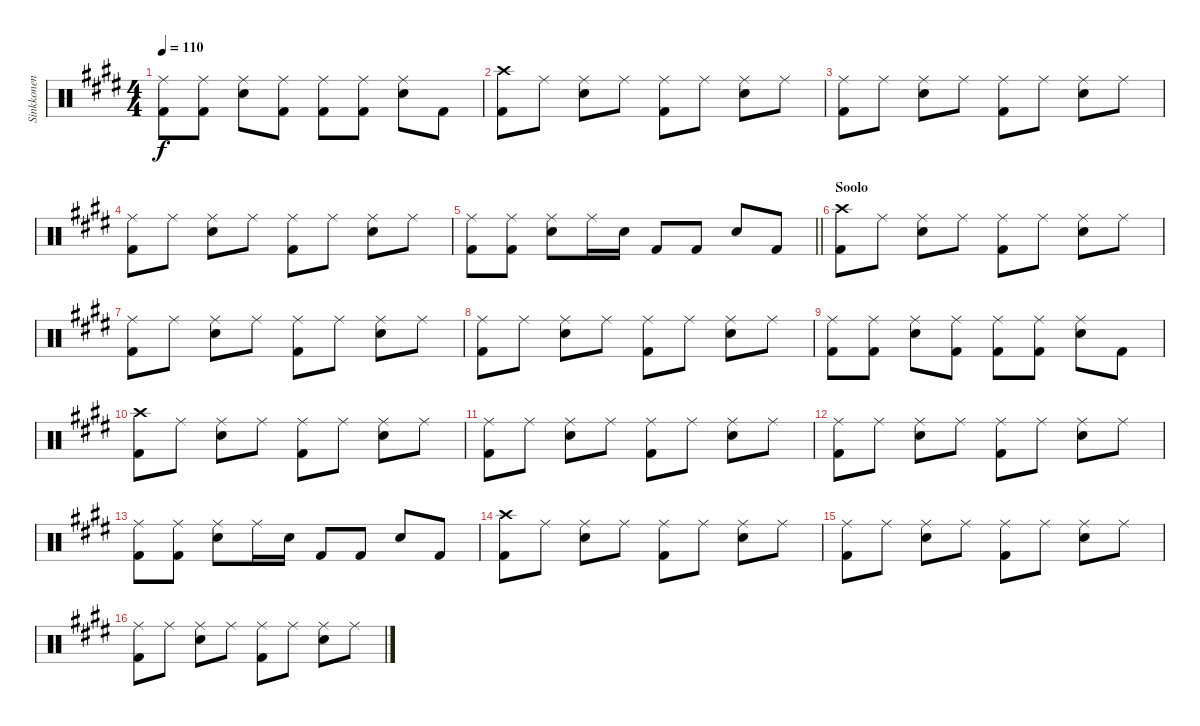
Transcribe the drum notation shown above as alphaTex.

\track ("Sinkkonen" "Sinkkonen") {instrument percussion}
\staff {score}
\articulation defaults
\ts (4 4)
\tempo 110
\clef neutral
\ks c#minor
("Ride (middle)" "Kick (hit) 2").8{dy f} ("Ride (middle)" "Kick (hit) 2").8 ("Ride (middle)" "Snare (hit) 2").8 ("Ride (middle)" "Kick (hit) 2").8 ("Ride (middle)" "Kick (hit) 2").8 ("Ride (middle)" "Kick (hit) 2").8 ("Ride (middle)" "Snare (hit) 2").8 "Kick (hit) 2".8 |
("Crash high (hit)" "Kick (hit) 2").8 "Ride (middle)".8 ("Ride (middle)" "Snare (hit) 2").8 "Ride (middle)".8 ("Ride (middle)" "Kick (hit) 2").8 "Ride (middle)".8 ("Ride (middle)" "Snare (hit) 2").8 "Ride (middle)".8 |
("Ride (middle)" "Kick (hit) 2").8 "Ride (middle)".8 ("Ride (middle)" "Snare (hit) 2").8 "Ride (middle)".8 ("Ride (middle)" "Kick (hit) 2").8 "Ride (middle)".8 ("Ride (middle)" "Snare (hit) 2").8 "Ride (middle)".8 |
("Ride (middle)" "Kick (hit) 2").8 "Ride (middle)".8 ("Ride (middle)" "Snare (hit) 2").8 "Ride (middle)".8 ("Ride (middle)" "Kick (hit) 2").8 "Ride (middle)".8 ("Ride (middle)" "Snare (hit) 2").8 "Ride (middle)".8 |
\barLineRight lightlight
("Ride (middle)" "Kick (hit) 2").8 ("Ride (middle)" "Kick (hit) 2").8 ("Ride (middle)" "Snare (hit) 2").8 "Ride (middle)".16 "Snare (hit) 2".16 "Kick (hit) 2".8 "Kick (hit) 2".8 "Snare (hit) 2".8 "Kick (hit) 2".8 |
\section ("" "Soolo")
("Crash high (hit)" "Kick (hit) 2").8 "Ride (middle)".8 ("Ride (middle)" "Snare (hit) 2").8 "Ride (middle)".8 ("Ride (middle)" "Kick (hit) 2").8 "Ride (middle)".8 ("Ride (middle)" "Snare (hit) 2").8 "Ride (middle)".8 |
("Ride (middle)" "Kick (hit) 2").8 "Ride (middle)".8 ("Ride (middle)" "Snare (hit) 2").8 "Ride (middle)".8 ("Ride (middle)" "Kick (hit) 2").8 "Ride (middle)".8 ("Ride (middle)" "Snare (hit) 2").8 "Ride (middle)".8 |
("Ride (middle)" "Kick (hit) 2").8 "Ride (middle)".8 ("Ride (middle)" "Snare (hit) 2").8 "Ride (middle)".8 ("Ride (middle)" "Kick (hit) 2").8 "Ride (middle)".8 ("Ride (middle)" "Snare (hit) 2").8 "Ride (middle)".8 |
("Ride (middle)" "Kick (hit) 2").8 ("Ride (middle)" "Kick (hit) 2").8 ("Ride (middle)" "Snare (hit) 2").8 ("Ride (middle)" "Kick (hit) 2").8 ("Ride (middle)" "Kick (hit) 2").8 ("Ride (middle)" "Kick (hit) 2").8 ("Ride (middle)" "Snare (hit) 2").8 "Kick (hit) 2".8 |
("Crash high (hit)" "Kick (hit) 2").8 "Ride (middle)".8 ("Ride (middle)" "Snare (hit) 2").8 "Ride (middle)".8 ("Ride (middle)" "Kick (hit) 2").8 "Ride (middle)".8 ("Ride (middle)" "Snare (hit) 2").8 "Ride (middle)".8 |
("Ride (middle)" "Kick (hit) 2").8 "Ride (middle)".8 ("Ride (middle)" "Snare (hit) 2").8 "Ride (middle)".8 ("Ride (middle)" "Kick (hit) 2").8 "Ride (middle)".8 ("Ride (middle)" "Snare (hit) 2").8 "Ride (middle)".8 |
("Ride (middle)" "Kick (hit) 2").8 "Ride (middle)".8 ("Ride (middle)" "Snare (hit) 2").8 "Ride (middle)".8 ("Ride (middle)" "Kick (hit) 2").8 "Ride (middle)".8 ("Ride (middle)" "Snare (hit) 2").8 "Ride (middle)".8 |
("Ride (middle)" "Kick (hit) 2").8 ("Ride (middle)" "Kick (hit) 2").8 ("Ride (middle)" "Snare (hit) 2").8 "Ride (middle)".16 "Snare (hit) 2".16 "Kick (hit) 2".8 "Kick (hit) 2".8 "Snare (hit) 2".8 "Kick (hit) 2".8 |
("Crash high (hit)" "Kick (hit) 2").8 "Ride (middle)".8 ("Ride (middle)" "Snare (hit) 2").8 "Ride (middle)".8 ("Ride (middle)" "Kick (hit) 2").8 "Ride (middle)".8 ("Ride (middle)" "Snare (hit) 2").8 "Ride (middle)".8 |
("Ride (middle)" "Kick (hit) 2").8 "Ride (middle)".8 ("Ride (middle)" "Snare (hit) 2").8 "Ride (middle)".8 ("Ride (middle)" "Kick (hit) 2").8 "Ride (middle)".8 ("Ride (middle)" "Snare (hit) 2").8 "Ride (middle)".8 |
("Ride (middle)" "Kick (hit) 2").8 "Ride (middle)".8 ("Ride (middle)" "Snare (hit) 2").8 "Ride (middle)".8 ("Ride (middle)" "Kick (hit) 2").8 "Ride (middle)".8 ("Ride (middle)" "Snare (hit) 2").8 "Ride (middle)".8
